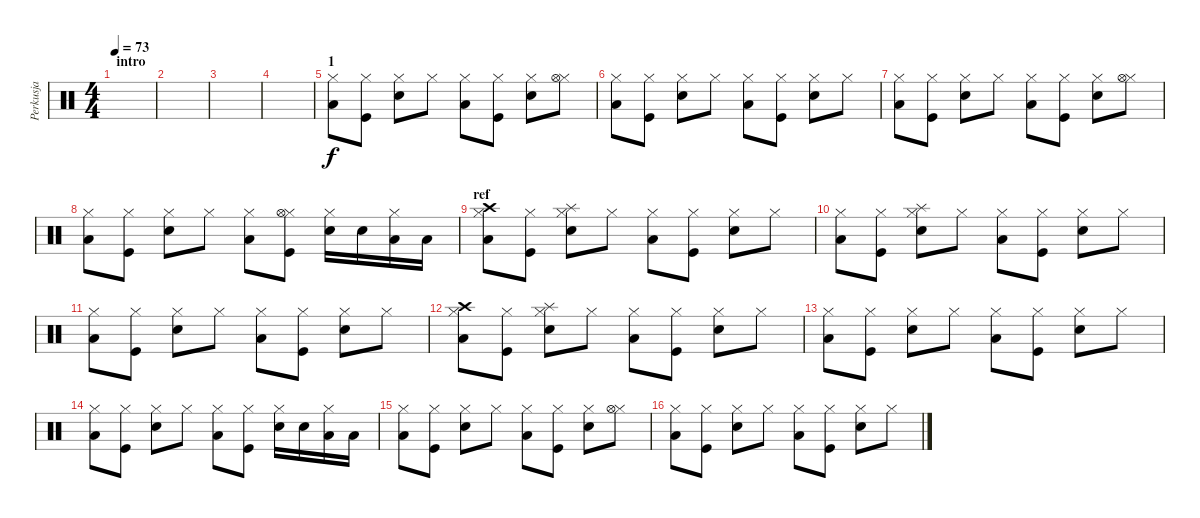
\track ("Perkusja" "Perkusja") {instrument percussion}
\staff {score}
\articulation defaults
\ts (4 4)
\section ("" "intro")
\tempo 73
\clef neutral
\ks c
|
|
|
|
\section ("" "1")
("Hi-Hat (closed)" "Low Tom (hit)").8 ("Hi-Hat (closed)" "Kick (hit)").8 ("Hi-Hat (closed)" "Electric Snare (hit)").8 "Hi-Hat (closed)".8 ("Hi-Hat (closed)" "Low Tom (hit)").8 ("Hi-Hat (closed)" "Kick (hit)").8 ("Hi-Hat (closed)" "Electric Snare (hit)").8 ("Hi-Hat (closed)" "Hi-Hat (open)").8 |
("Hi-Hat (closed)" "Low Tom (hit)").8 ("Hi-Hat (closed)" "Kick (hit)").8 ("Hi-Hat (closed)" "Electric Snare (hit)").8 "Hi-Hat (closed)".8 ("Hi-Hat (closed)" "Low Tom (hit)").8 ("Hi-Hat (closed)" "Kick (hit)").8 ("Hi-Hat (closed)" "Electric Snare (hit)").8 "Hi-Hat (closed)".8 |
("Hi-Hat (closed)" "Low Tom (hit)").8 ("Hi-Hat (closed)" "Kick (hit)").8 ("Hi-Hat (closed)" "Electric Snare (hit)").8 "Hi-Hat (closed)".8 ("Hi-Hat (closed)" "Low Tom (hit)").8 ("Hi-Hat (closed)" "Kick (hit)").8 ("Hi-Hat (closed)" "Electric Snare (hit)").8 ("Hi-Hat (closed)" "Hi-Hat (open)").8 |
("Hi-Hat (closed)" "Low Tom (hit)").8 ("Hi-Hat (closed)" "Kick (hit)").8 ("Hi-Hat (closed)" "Electric Snare (hit)").8 "Hi-Hat (closed)".8 ("Hi-Hat (closed)" "Low Tom (hit)").8 ("Hi-Hat (closed)" "Kick (hit)" "Hi-Hat (open)").8 ("Hi-Hat (closed)" "Electric Snare (hit)").16 "Electric Snare (hit)".16 ("Hi-Hat (closed)" "Low Tom (hit)").16 "Low Tom (hit)".16 |
\section ("" "ref")
("Hi-Hat (closed)" "Low Tom (hit)" "Crash high (hit)").8 ("Hi-Hat (closed)" "Kick (hit)").8 ("Hi-Hat (closed)" "Electric Snare (hit)" "Splash (hit)").8 "Hi-Hat (closed)".8 ("Hi-Hat (closed)" "Low Tom (hit)").8 ("Hi-Hat (closed)" "Kick (hit)").8 ("Hi-Hat (closed)" "Electric Snare (hit)").8 "Hi-Hat (closed)".8 |
("Hi-Hat (closed)" "Low Tom (hit)").8 ("Hi-Hat (closed)" "Kick (hit)").8 ("Hi-Hat (closed)" "Electric Snare (hit)" "Splash (hit)").8 "Hi-Hat (closed)".8 ("Hi-Hat (closed)" "Low Tom (hit)").8 ("Hi-Hat (closed)" "Kick (hit)").8 ("Hi-Hat (closed)" "Electric Snare (hit)").8 "Hi-Hat (closed)".8 |
("Hi-Hat (closed)" "Low Tom (hit)").8 ("Hi-Hat (closed)" "Kick (hit)").8 ("Hi-Hat (closed)" "Electric Snare (hit)").8 "Hi-Hat (closed)".8 ("Hi-Hat (closed)" "Low Tom (hit)").8 ("Hi-Hat (closed)" "Kick (hit)").8 ("Hi-Hat (closed)" "Electric Snare (hit)").8 "Hi-Hat (closed)".8 |
("Hi-Hat (closed)" "Low Tom (hit)" "Crash high (hit)").8 ("Hi-Hat (closed)" "Kick (hit)").8 ("Hi-Hat (closed)" "Electric Snare (hit)" "Splash (hit)").8 "Hi-Hat (closed)".8 ("Hi-Hat (closed)" "Low Tom (hit)").8 ("Hi-Hat (closed)" "Kick (hit)").8 ("Hi-Hat (closed)" "Electric Snare (hit)").8 "Hi-Hat (closed)".8 |
("Hi-Hat (closed)" "Low Tom (hit)").8 ("Hi-Hat (closed)" "Kick (hit)").8 ("Hi-Hat (closed)" "Electric Snare (hit)").8 "Hi-Hat (closed)".8 ("Hi-Hat (closed)" "Low Tom (hit)").8 ("Hi-Hat (closed)" "Kick (hit)").8 ("Hi-Hat (closed)" "Electric Snare (hit)").8 "Hi-Hat (closed)".8 |
("Hi-Hat (closed)" "Low Tom (hit)").8 ("Hi-Hat (closed)" "Kick (hit)").8 ("Hi-Hat (closed)" "Electric Snare (hit)").8 "Hi-Hat (closed)".8 ("Hi-Hat (closed)" "Low Tom (hit)").8 ("Hi-Hat (closed)" "Kick (hit)").8 ("Hi-Hat (closed)" "Electric Snare (hit)").16 "Electric Snare (hit)".16 ("Hi-Hat (closed)" "Low Tom (hit)").16 "Low Tom (hit)".16 |
("Hi-Hat (closed)" "Low Tom (hit)").8 ("Hi-Hat (closed)" "Kick (hit)").8 ("Hi-Hat (closed)" "Electric Snare (hit)").8 "Hi-Hat (closed)".8 ("Hi-Hat (closed)" "Low Tom (hit)").8 ("Hi-Hat (closed)" "Kick (hit)").8 ("Hi-Hat (closed)" "Electric Snare (hit)").8 ("Hi-Hat (closed)" "Hi-Hat (open)").8 |
("Hi-Hat (closed)" "Low Tom (hit)").8 ("Hi-Hat (closed)" "Kick (hit)").8 ("Hi-Hat (closed)" "Electric Snare (hit)").8 "Hi-Hat (closed)".8 ("Hi-Hat (closed)" "Low Tom (hit)").8 ("Hi-Hat (closed)" "Kick (hit)").8 ("Hi-Hat (closed)" "Electric Snare (hit)").8 "Hi-Hat (closed)".8
